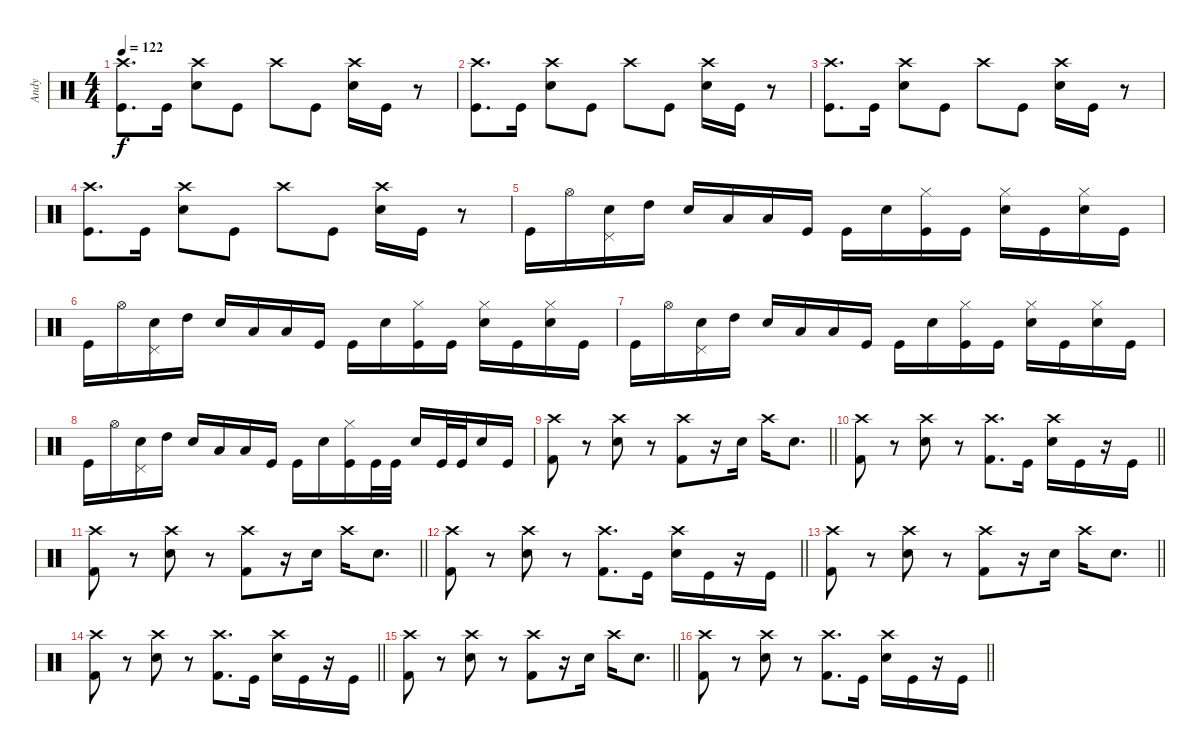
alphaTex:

\track ("Andy" "Andy") {instrument percussion}
\staff {score}
\articulation defaults
\ts (4 4)
\tempo 122
\clef neutral
\ks c
("Kick (hit)" "Crash high (hit)").8{d dy f} "Kick (hit)".16 ("Snare (hit) 2" "Crash high (hit)").8 "Kick (hit)".8 "Crash high (hit)".8 "Kick (hit)".8 ("Snare (hit) 2" "Crash high (hit)").16 "Kick (hit)".16 r.8 |
("Kick (hit)" "Crash high (hit)").8{d} "Kick (hit)".16 ("Snare (hit) 2" "Crash high (hit)").8 "Kick (hit)".8 "Crash high (hit)".8 "Kick (hit)".8 ("Snare (hit) 2" "Crash high (hit)").16 "Kick (hit)".16 r.8 |
("Kick (hit)" "Crash high (hit)").8{d} "Kick (hit)".16 ("Snare (hit) 2" "Crash high (hit)").8 "Kick (hit)".8 "Crash high (hit)".8 "Kick (hit)".8 ("Snare (hit) 2" "Crash high (hit)").16 "Kick (hit)".16 r.8 |
("Kick (hit)" "Crash high (hit)").8{d} "Kick (hit)".16 ("Snare (hit) 2" "Crash high (hit)").8 "Kick (hit)".8 "Crash high (hit)".8 "Kick (hit)".8 ("Snare (hit) 2" "Crash high (hit)").16 "Kick (hit)".16 r.8 |
"Kick (hit)".16 "Hi-Hat (open)".16 ("Snare (hit) 2" "Pedal Hi-Hat (hit)").16 "High Tom (hit)".16 "Snare (hit) 2".16 "Low Floor Tom (hit)".16 "Low Floor Tom (hit)".16 "Kick (hit)".16 "Kick (hit)".16 "Snare (hit) 2".16 ("Kick (hit)" "Hi-Hat (closed)").16 "Kick (hit)".16 ("Snare (hit) 2" "Hi-Hat (closed)").16 "Kick (hit)".16 ("Snare (hit) 2" "Hi-Hat (closed)").16 "Kick (hit)".16 |
"Kick (hit)".16 "Hi-Hat (open)".16 ("Snare (hit) 2" "Pedal Hi-Hat (hit)").16 "High Tom (hit)".16 "Snare (hit) 2".16 "Low Floor Tom (hit)".16 "Low Floor Tom (hit)".16 "Kick (hit)".16 "Kick (hit)".16 "Snare (hit) 2".16 ("Kick (hit)" "Hi-Hat (closed)").16 "Kick (hit)".16 ("Snare (hit) 2" "Hi-Hat (closed)").16 "Kick (hit)".16 ("Snare (hit) 2" "Hi-Hat (closed)").16 "Kick (hit)".16 |
"Kick (hit)".16 "Hi-Hat (open)".16 ("Snare (hit) 2" "Pedal Hi-Hat (hit)").16 "High Tom (hit)".16 "Snare (hit) 2".16 "Low Floor Tom (hit)".16 "Low Floor Tom (hit)".16 "Kick (hit)".16 "Kick (hit)".16 "Snare (hit) 2".16 ("Kick (hit)" "Hi-Hat (closed)").16 "Kick (hit)".16 ("Snare (hit) 2" "Hi-Hat (closed)").16 "Kick (hit)".16 ("Snare (hit) 2" "Hi-Hat (closed)").16 "Kick (hit)".16 |
"Kick (hit)".16 "Hi-Hat (open)".16 ("Snare (hit) 2" "Pedal Hi-Hat (hit)").16 "High Tom (hit)".16 "Snare (hit) 2".16 "Low Floor Tom (hit)".16 "Low Floor Tom (hit)".16 "Kick (hit)".16 "Kick (hit)".16 "Snare (hit) 2".16 ("Kick (hit)" "Hi-Hat (closed)").16 "Kick (hit)".32 "Kick (hit)".32 "Snare (hit) 2".16 "Kick (hit)".32 "Kick (hit)".32 "Snare (hit) 2".16 "Kick (hit)".16 |
\barLineRight lightlight
("Crash high (hit)" "Kick (hit) 2").8 r.8 ("Crash high (hit)" "Snare (hit) 2").8 r.8 ("Crash high (hit)" "Kick (hit) 2").8 r.16 "Snare (hit) 2".16 "Crash high (hit)".16 "Snare (hit) 2".8{d} |
\barLineRight lightlight
("Crash high (hit)" "Kick (hit) 2").8 r.8 ("Crash high (hit)" "Snare (hit) 2").8 r.8 ("Crash high (hit)" "Kick (hit) 2").8{d} "Kick (hit)".16 ("Snare (hit) 2" "Crash high (hit)").16 "Kick (hit)".16 r.16 "Kick (hit)".16 |
\barLineRight lightlight
("Crash high (hit)" "Kick (hit) 2").8 r.8 ("Crash high (hit)" "Snare (hit) 2").8 r.8 ("Crash high (hit)" "Kick (hit) 2").8 r.16 "Snare (hit) 2".16 "Crash high (hit)".16 "Snare (hit) 2".8{d} |
\barLineRight lightlight
("Crash high (hit)" "Kick (hit) 2").8 r.8 ("Crash high (hit)" "Snare (hit) 2").8 r.8 ("Crash high (hit)" "Kick (hit) 2").8{d} "Kick (hit)".16 ("Snare (hit) 2" "Crash high (hit)").16 "Kick (hit)".16 r.16 "Kick (hit)".16 |
\barLineRight lightlight
("Crash high (hit)" "Kick (hit) 2").8 r.8 ("Crash high (hit)" "Snare (hit) 2").8 r.8 ("Crash high (hit)" "Kick (hit) 2").8 r.16 "Snare (hit) 2".16 "Crash high (hit)".16 "Snare (hit) 2".8{d} |
\barLineRight lightlight
("Crash high (hit)" "Kick (hit) 2").8 r.8 ("Crash high (hit)" "Snare (hit) 2").8 r.8 ("Crash high (hit)" "Kick (hit) 2").8{d} "Kick (hit)".16 ("Snare (hit) 2" "Crash high (hit)").16 "Kick (hit)".16 r.16 "Kick (hit)".16 |
\barLineRight lightlight
("Crash high (hit)" "Kick (hit) 2").8 r.8 ("Crash high (hit)" "Snare (hit) 2").8 r.8 ("Crash high (hit)" "Kick (hit) 2").8 r.16 "Snare (hit) 2".16 "Crash high (hit)".16 "Snare (hit) 2".8{d} |
\barLineRight lightlight
("Crash high (hit)" "Kick (hit) 2").8 r.8 ("Crash high (hit)" "Snare (hit) 2").8 r.8 ("Crash high (hit)" "Kick (hit) 2").8{d} "Kick (hit)".16 ("Snare (hit) 2" "Crash high (hit)").16 "Kick (hit)".16 r.16 "Kick (hit)".16
